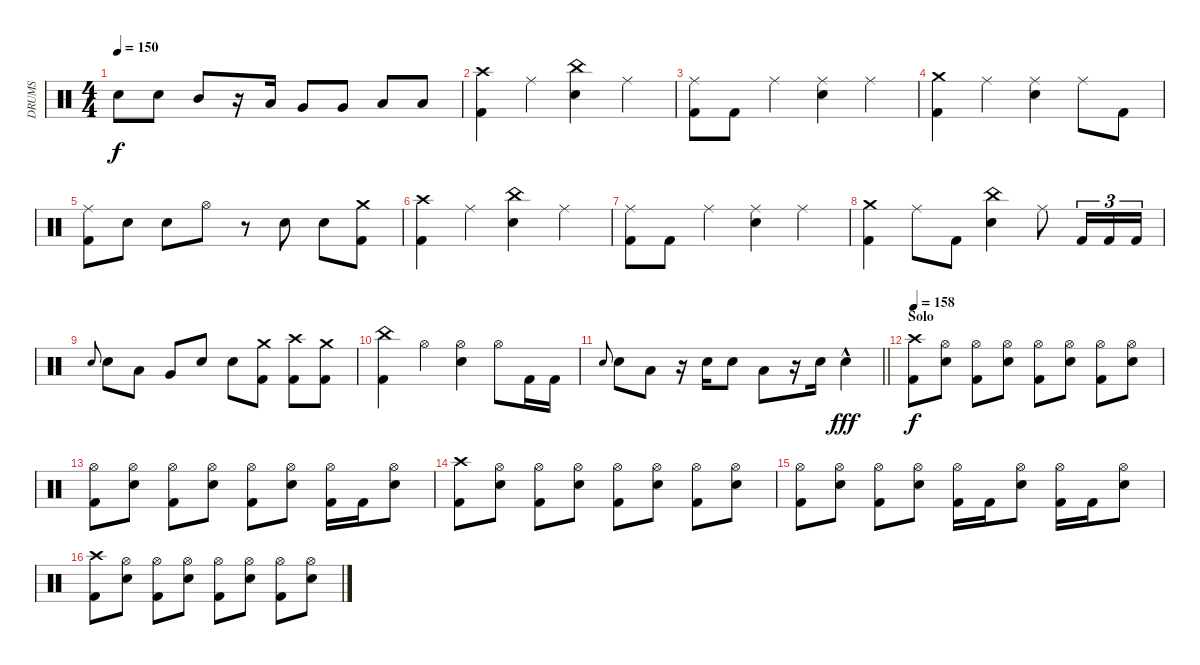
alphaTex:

\track ("DRUMS" "DRUMS") {instrument percussion}
\staff {score}
\articulation defaults
\ts (4 4)
\tempo 150
\clef neutral
\ks c "Snare (hit) 2".8{dy f} "Snare (hit) 2".8 "Mid Tom (hit)".8
r.16 "Low Tom (hit)".16 "Very Low Tom (hit)".8 "Very Low Tom (hit)".8 "Low Floor Tom (hit)".8 "Low Floor Tom (hit)".8 |
("Crash high (hit)" "Kick (hit) 2").4 "Ride (middle)".4 ("China (hit)" "Snare (hit) 2").4 "Ride (middle)".4 |
("Ride (middle)" "Kick (hit) 2").8 "Kick (hit) 2".8 "Ride (middle)".4 ("Ride (middle)" "Snare (hit) 2").4 "Ride (middle)".4 |
("Crash medium (hit)" "Kick (hit) 2").4 "Ride (middle)".4 ("Ride (middle)" "Snare (hit) 2").4 "Ride (middle)".8 "Kick (hit) 2".8 |
("Ride (middle)" "Kick (hit) 2").8 "Snare (hit) 2".8 "Snare (hit) 2".8 "Hi-Hat (open)".8 r.8 "Snare (hit) 2".8 "Snare (hit) 2".8 ("Crash medium (hit)" "Kick (hit) 2").8 |
("Crash high (hit)" "Kick (hit) 2").4 "Ride (middle)".4 ("China (hit)" "Snare (hit) 2").4 "Ride (middle)".4 |
("Ride (middle)" "Kick (hit) 2").8 "Kick (hit) 2".8 "Ride (middle)".4 ("Ride (middle)" "Snare (hit) 2").4 "Ride (middle)".4 |
("Crash medium (hit)" "Kick (hit) 2").4 "Ride (middle)".8 "Kick (hit) 2".8 ("China (hit)" "Snare (hit) 2").4 "Ride (middle)".8 "Kick (hit) 2".16{tu (3 2)} "Kick (hit) 2".16{tu (3 2)} "Kick (hit) 2".16{tu (3 2)} |
"Snare (hit) 2".8{gr onbeat} "Snare (hit) 2".8 "Low Tom (hit)".8 "Very Low Tom (hit)".8 "Snare (hit) 2".8 "Snare (hit) 2".8 ("Crash medium (hit)" "Kick (hit) 2").8 ("Crash high (hit)" "Kick (hit) 2").8 ("Crash medium (hit)" "Kick (hit) 2").8 |
("China (hit)" "Kick (hit) 2").4 "Hi-Hat (open)".4 ("Hi-Hat (open)" "Snare (hit) 2").4 "Hi-Hat (open)".8 "Kick (hit) 2".16 "Kick (hit) 2".16 |
\barLineRight lightlight "Snare (hit) 2".8{gr onbeat} "Snare (hit) 2".8 "Low Tom (hit)".8
r.16 "Snare (hit) 2".16 "Snare (hit) 2".8 "Low Tom (hit)".8 r.16 "Snare (hit) 2".16 "Snare (hit) 2"{hac}.4{dy fff} |
\section ("" "Solo")
\tempo 158
("Crash high (hit)" "Kick (hit) 2").8{dy f} ("Hi-Hat (open)" "Snare (hit) 2").8 ("Hi-Hat (open)" "Kick (hit) 2").8 ("Hi-Hat (open)" "Snare (hit) 2").8 ("Hi-Hat (open)" "Kick (hit) 2").8 ("Hi-Hat (open)" "Snare (hit) 2").8 ("Hi-Hat (open)" "Kick (hit) 2").8 ("Hi-Hat (open)" "Snare (hit) 2").8 |
("Hi-Hat (open)" "Kick (hit) 2").8 ("Hi-Hat (open)" "Snare (hit) 2").8 ("Hi-Hat (open)" "Kick (hit) 2").8 ("Hi-Hat (open)" "Snare (hit) 2").8 ("Hi-Hat (open)" "Kick (hit) 2").8 ("Hi-Hat (open)" "Snare (hit) 2").8 ("Hi-Hat (open)" "Kick (hit) 2").16 "Kick (hit) 2".16 ("Hi-Hat (open)" "Snare (hit) 2").8 |
("Crash high (hit)" "Kick (hit) 2").8 ("Hi-Hat (open)" "Snare (hit) 2").8 ("Hi-Hat (open)" "Kick (hit) 2").8 ("Hi-Hat (open)" "Snare (hit) 2").8 ("Hi-Hat (open)" "Kick (hit) 2").8 ("Hi-Hat (open)" "Snare (hit) 2").8 ("Hi-Hat (open)" "Kick (hit) 2").8 ("Hi-Hat (open)" "Snare (hit) 2").8 |
("Hi-Hat (open)" "Kick (hit) 2").8 ("Hi-Hat (open)" "Snare (hit) 2").8 ("Hi-Hat (open)" "Kick (hit) 2").8 ("Hi-Hat (open)" "Snare (hit) 2").8 ("Hi-Hat (open)" "Kick (hit) 2").16 "Kick (hit) 2".16 ("Hi-Hat (open)" "Snare (hit) 2").8 ("Hi-Hat (open)" "Kick (hit) 2").16 "Kick (hit) 2".16 ("Hi-Hat (open)" "Snare (hit) 2").8 |
("Crash high (hit)" "Kick (hit) 2").8 ("Hi-Hat (open)" "Snare (hit) 2").8 ("Hi-Hat (open)" "Kick (hit) 2").8 ("Hi-Hat (open)" "Snare (hit) 2").8 ("Hi-Hat (open)" "Kick (hit) 2").8 ("Hi-Hat (open)" "Snare (hit) 2").8 ("Hi-Hat (open)" "Kick (hit) 2").8 ("Hi-Hat (open)" "Snare (hit) 2").8
